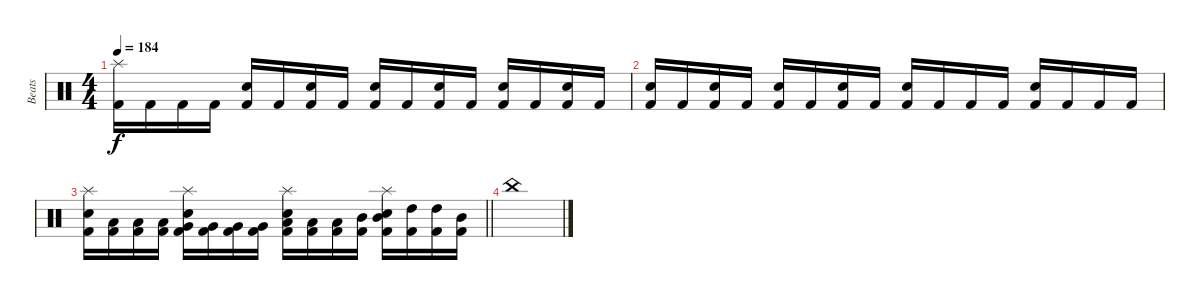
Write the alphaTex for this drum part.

\track ("Beats" "Beats") {instrument percussion}
\staff {score}
\articulation defaults
\ts (4 4)
\tempo 184
\clef neutral
\ks c
("Splash (hit)" "Kick (hit) 2").16{dy f} "Kick (hit) 2".16 "Kick (hit) 2".16 "Kick (hit) 2".16 ("Electric Snare (hit)" "Kick (hit) 2").16 "Kick (hit) 2".16 ("Electric Snare (hit)" "Kick (hit) 2").16 "Kick (hit) 2".16 ("Electric Snare (hit)" "Kick (hit) 2").16 "Kick (hit) 2".16 ("Electric Snare (hit)" "Kick (hit) 2").16 "Kick (hit) 2".16 ("Electric Snare (hit)" "Kick (hit) 2").16 "Kick (hit) 2".16 ("Electric Snare (hit)" "Kick (hit) 2").16 "Kick (hit) 2".16 |
("Electric Snare (hit)" "Kick (hit) 2").16 "Kick (hit) 2".16 ("Electric Snare (hit)" "Kick (hit) 2").16 "Kick (hit) 2".16 ("Electric Snare (hit)" "Kick (hit) 2").16 "Kick (hit) 2".16 ("Electric Snare (hit)" "Kick (hit) 2").16 "Kick (hit) 2".16 ("Electric Snare (hit)" "Kick (hit) 2").16 "Kick (hit) 2".16 "Kick (hit) 2".16 "Kick (hit) 2".16 ("Electric Snare (hit)" "Kick (hit) 2").16 "Kick (hit) 2".16 "Kick (hit) 2".16 "Kick (hit) 2".16 |
\barLineRight lightlight
("Splash (hit)" "Electric Snare (hit)" "Kick (hit) 2").16 ("Low Tom (hit)" "Kick (hit) 2").16 ("Low Tom (hit)" "Kick (hit) 2").16 ("Low Tom (hit)" "Kick (hit) 2").16 ("Splash (hit)" "Very Low Tom (hit)" "Electric Snare (hit)" "Kick (hit) 2").16 ("Very Low Tom (hit)" "Kick (hit) 2").16 ("Very Low Tom (hit)" "Kick (hit) 2").16 ("Very Low Tom (hit)" "Kick (hit) 2").16 ("Splash (hit)" "Low Floor Tom (hit)" "Electric Snare (hit)" "Kick (hit) 2").16 ("Low Floor Tom (hit)" "Kick (hit) 2").16 ("Low Floor Tom (hit)" "Kick (hit) 2").16 ("Mid Tom (hit)" "Kick (hit) 2").16 ("Splash (hit)" "Mid Tom (hit)" "Electric Snare (hit)" "Kick (hit) 2").16 ("High Tom (hit)" "Kick (hit) 2").16 ("High Tom (hit)" "Kick (hit) 2").16 ("Mid Tom (hit)" "Kick (hit) 2").16 |
"China (hit)".1
